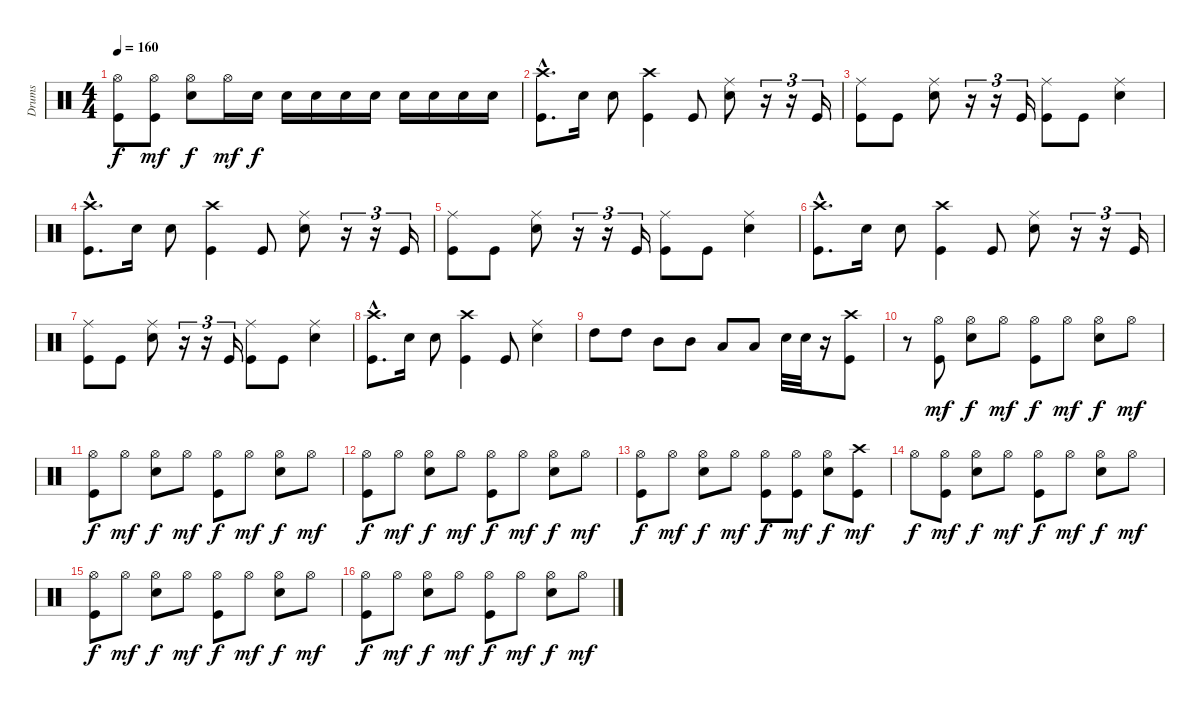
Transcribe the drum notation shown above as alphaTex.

\track ("Drums" "Drums") {instrument percussion}
\staff {score}
\articulation defaults
\ts (4 4)
\tempo 160
\clef neutral
\ks c
("Hi-Hat (open)" "Kick (hit)").8{dy f} ("Hi-Hat (open)" "Kick (hit)").8{dy mf} ("Hi-Hat (open)" "Snare (hit) 2").8{dy f} "Hi-Hat (open)".16{dy mf} "Snare (hit) 2".16{dy f} "Snare (hit) 2".16 "Snare (hit) 2".16 "Snare (hit) 2".16 "Snare (hit) 2".16 "Snare (hit) 2".16 "Snare (hit) 2".16 "Snare (hit) 2".16 "Snare (hit) 2".16 |
("Crash high (hit)"{hac} "Kick (hit)"{hac}).8{d} "Snare (hit) 2".16 "Snare (hit) 2".8 ("Crash high (hit)" "Kick (hit)").4 "Kick (hit)".8 ("Ride (middle)" "Snare (hit) 2").8 r.16{tu (3 2)} r.16{tu (3 2)} "Kick (hit)".16{tu (3 2)} |
("Ride (middle)" "Kick (hit)").8 "Kick (hit)".8 ("Ride (middle)" "Snare (hit) 2").8 r.16{tu (3 2)} r.16{tu (3 2)} "Kick (hit)".16{tu (3 2)} ("Ride (middle)" "Kick (hit)").8 "Kick (hit)".8 ("Ride (middle)" "Snare (hit) 2").4 |
("Crash high (hit)"{hac} "Kick (hit)"{hac}).8{d} "Snare (hit) 2".16 "Snare (hit) 2".8 ("Crash high (hit)" "Kick (hit)").4 "Kick (hit)".8 ("Ride (middle)" "Snare (hit) 2").8 r.16{tu (3 2)} r.16{tu (3 2)} "Kick (hit)".16{tu (3 2)} |
("Ride (middle)" "Kick (hit)").8 "Kick (hit)".8 ("Ride (middle)" "Snare (hit) 2").8 r.16{tu (3 2)} r.16{tu (3 2)} "Kick (hit)".16{tu (3 2)} ("Ride (middle)" "Kick (hit)").8 "Kick (hit)".8 ("Ride (middle)" "Snare (hit) 2").4 |
("Crash high (hit)"{hac} "Kick (hit)"{hac}).8{d} "Snare (hit) 2".16 "Snare (hit) 2".8 ("Crash high (hit)" "Kick (hit)").4 "Kick (hit)".8 ("Ride (middle)" "Snare (hit) 2").8 r.16{tu (3 2)} r.16{tu (3 2)} "Kick (hit)".16{tu (3 2)} |
("Ride (middle)" "Kick (hit)").8 "Kick (hit)".8 ("Ride (middle)" "Snare (hit) 2").8 r.16{tu (3 2)} r.16{tu (3 2)} "Kick (hit)".16{tu (3 2)} ("Ride (middle)" "Kick (hit)").8 "Kick (hit)".8 ("Ride (middle)" "Snare (hit) 2").4 |
("Crash high (hit)"{hac} "Kick (hit)"{hac}).8{d} "Snare (hit) 2".16 "Snare (hit) 2".8 ("Crash high (hit)" "Kick (hit)").4 "Kick (hit)".8 ("Ride (middle)" "Snare (hit) 2").4 |
"High Tom (hit)".8 "High Tom (hit)".8 "Mid Tom (hit)".8 "Mid Tom (hit)".8 "Low Tom (hit)".8 "Low Tom (hit)".8 "Snare (hit) 2".32 "Snare (hit) 2".32 r.16 ("Crash high (hit)" "Kick (hit)").8 |
r.8 ("Hi-Hat (open)" "Kick (hit)").8{dy mf} ("Hi-Hat (open)" "Snare (hit) 2").8{dy f} "Hi-Hat (open)".8{dy mf} ("Hi-Hat (open)" "Kick (hit)").8{dy f} "Hi-Hat (open)".8{dy mf} ("Hi-Hat (open)" "Snare (hit) 2").8{dy f} "Hi-Hat (open)".8{dy mf} |
("Hi-Hat (open)" "Kick (hit)").8{dy f} "Hi-Hat (open)".8{dy mf} ("Hi-Hat (open)" "Snare (hit) 2").8{dy f} "Hi-Hat (open)".8{dy mf} ("Hi-Hat (open)" "Kick (hit)").8{dy f} "Hi-Hat (open)".8{dy mf} ("Hi-Hat (open)" "Snare (hit) 2").8{dy f} "Hi-Hat (open)".8{dy mf} |
("Hi-Hat (open)" "Kick (hit)").8{dy f} "Hi-Hat (open)".8{dy mf} ("Hi-Hat (open)" "Snare (hit) 2").8{dy f} "Hi-Hat (open)".8{dy mf} ("Hi-Hat (open)" "Kick (hit)").8{dy f} "Hi-Hat (open)".8{dy mf} ("Hi-Hat (open)" "Snare (hit) 2").8{dy f} "Hi-Hat (open)".8{dy mf} |
("Hi-Hat (open)" "Kick (hit)").8{dy f} "Hi-Hat (open)".8{dy mf} ("Hi-Hat (open)" "Snare (hit) 2").8{dy f} "Hi-Hat (open)".8{dy mf} ("Hi-Hat (open)" "Kick (hit)").8{dy f} ("Hi-Hat (open)" "Kick (hit)").8{dy mf} ("Hi-Hat (open)" "Snare (hit) 2").8{dy f} ("Crash high (hit)" "Kick (hit)").8{dy mf} |
"Hi-Hat (open)".8{dy f} ("Hi-Hat (open)" "Kick (hit)").8{dy mf} ("Hi-Hat (open)" "Snare (hit) 2").8{dy f} "Hi-Hat (open)".8{dy mf} ("Hi-Hat (open)" "Kick (hit)").8{dy f} "Hi-Hat (open)".8{dy mf} ("Hi-Hat (open)" "Snare (hit) 2").8{dy f} "Hi-Hat (open)".8{dy mf} |
("Hi-Hat (open)" "Kick (hit)").8{dy f} "Hi-Hat (open)".8{dy mf} ("Hi-Hat (open)" "Snare (hit) 2").8{dy f} "Hi-Hat (open)".8{dy mf} ("Hi-Hat (open)" "Kick (hit)").8{dy f} "Hi-Hat (open)".8{dy mf} ("Hi-Hat (open)" "Snare (hit) 2").8{dy f} "Hi-Hat (open)".8{dy mf} |
("Hi-Hat (open)" "Kick (hit)").8{dy f} "Hi-Hat (open)".8{dy mf} ("Hi-Hat (open)" "Snare (hit) 2").8{dy f} "Hi-Hat (open)".8{dy mf} ("Hi-Hat (open)" "Kick (hit)").8{dy f} "Hi-Hat (open)".8{dy mf} ("Hi-Hat (open)" "Snare (hit) 2").8{dy f} "Hi-Hat (open)".8{dy mf}
